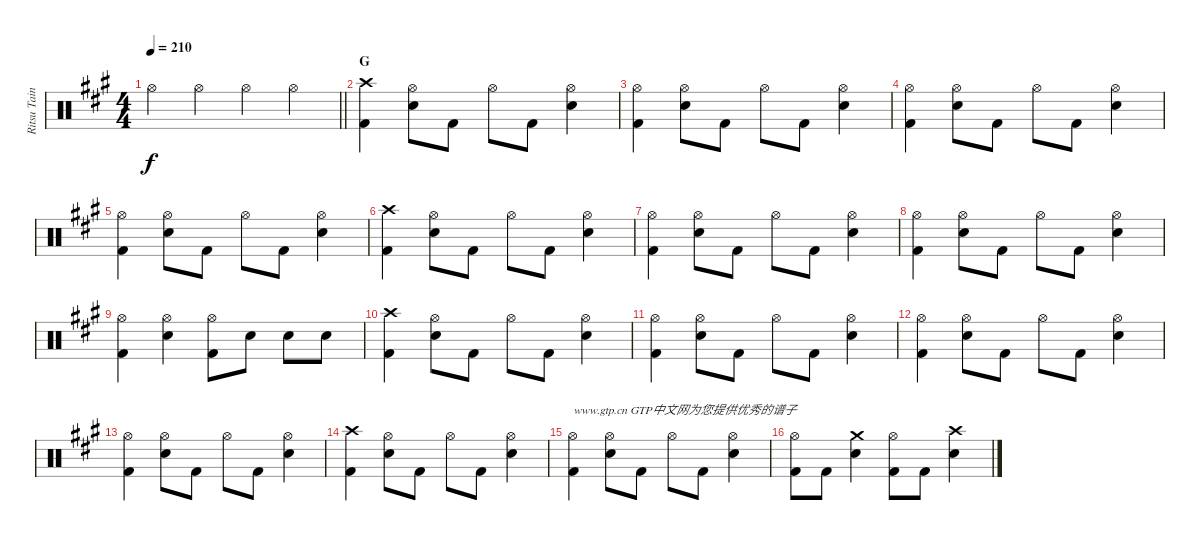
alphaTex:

\track ("Ritsu Tainaka" "Ritsu Tain") {instrument percussion}
\staff {score}
\articulation defaults
\ts (4 4)
\tempo 210
\clef neutral
\barLineRight lightlight
\ks a "Hi-Hat (open)".4{dy f} "Hi-Hat (open)".4 "Hi-Hat (open)".4 "Hi-Hat (open)".4
|
\section ("" "G")
("Crash high (hit)" "Kick (hit) 2").4 ("Hi-Hat (open)" "Electric Snare (hit)").8 "Kick (hit) 2".8 "Hi-Hat (open)".8 "Kick (hit) 2".8 ("Hi-Hat (open)" "Electric Snare (hit)").4 |
("Hi-Hat (open)" "Kick (hit) 2").4 ("Hi-Hat (open)" "Electric Snare (hit)").8 "Kick (hit) 2".8 "Hi-Hat (open)".8 "Kick (hit) 2".8 ("Hi-Hat (open)" "Electric Snare (hit)").4 |
("Hi-Hat (open)" "Kick (hit) 2").4 ("Hi-Hat (open)" "Electric Snare (hit)").8 "Kick (hit) 2".8 "Hi-Hat (open)".8 "Kick (hit) 2".8 ("Hi-Hat (open)" "Electric Snare (hit)").4 |
("Hi-Hat (open)" "Kick (hit) 2").4 ("Hi-Hat (open)" "Electric Snare (hit)").8 "Kick (hit) 2".8 "Hi-Hat (open)".8 "Kick (hit) 2".8 ("Hi-Hat (open)" "Electric Snare (hit)").4 |
("Crash high (hit)" "Kick (hit) 2").4 ("Hi-Hat (open)" "Electric Snare (hit)").8 "Kick (hit) 2".8 "Hi-Hat (open)".8 "Kick (hit) 2".8 ("Hi-Hat (open)" "Electric Snare (hit)").4 |
("Hi-Hat (open)" "Kick (hit) 2").4 ("Hi-Hat (open)" "Electric Snare (hit)").8 "Kick (hit) 2".8 "Hi-Hat (open)".8 "Kick (hit) 2".8 ("Hi-Hat (open)" "Electric Snare (hit)").4 |
("Hi-Hat (open)" "Kick (hit) 2").4 ("Hi-Hat (open)" "Electric Snare (hit)").8 "Kick (hit) 2".8 "Hi-Hat (open)".8 "Kick (hit) 2".8 ("Hi-Hat (open)" "Electric Snare (hit)").4 |
("Hi-Hat (open)" "Kick (hit) 2").4 ("Hi-Hat (open)" "Electric Snare (hit)").4 ("Hi-Hat (open)" "Kick (hit) 2").8 "Electric Snare (hit)".8 "Electric Snare (hit)".8 "Electric Snare (hit)".8 |
("Crash high (hit)" "Kick (hit) 2").4 ("Hi-Hat (open)" "Electric Snare (hit)").8 "Kick (hit) 2".8 "Hi-Hat (open)".8 "Kick (hit) 2".8 ("Hi-Hat (open)" "Electric Snare (hit)").4 |
("Hi-Hat (open)" "Kick (hit) 2").4 ("Hi-Hat (open)" "Electric Snare (hit)").8 "Kick (hit) 2".8 "Hi-Hat (open)".8 "Kick (hit) 2".8 ("Hi-Hat (open)" "Electric Snare (hit)").4 |
("Hi-Hat (open)" "Kick (hit) 2").4 ("Hi-Hat (open)" "Electric Snare (hit)").8 "Kick (hit) 2".8 "Hi-Hat (open)".8 "Kick (hit) 2".8 ("Hi-Hat (open)" "Electric Snare (hit)").4 |
("Hi-Hat (open)" "Kick (hit) 2").4 ("Hi-Hat (open)" "Electric Snare (hit)").8 "Kick (hit) 2".8 "Hi-Hat (open)".8 "Kick (hit) 2".8 ("Hi-Hat (open)" "Electric Snare (hit)").4 |
("Crash high (hit)" "Kick (hit) 2").4 ("Hi-Hat (open)" "Electric Snare (hit)").8 "Kick (hit) 2".8 "Hi-Hat (open)".8 "Kick (hit) 2".8 ("Hi-Hat (open)" "Electric Snare (hit)").4 |
("Hi-Hat (open)" "Kick (hit) 2").4{txt "www.gtp.cn GTP中文网为您提供优秀的谱子"} ("Hi-Hat (open)" "Electric Snare (hit)").8 "Kick (hit) 2".8 "Hi-Hat (open)".8 "Kick (hit) 2".8 ("Hi-Hat (open)" "Electric Snare (hit)").4 |
("Hi-Hat (open)" "Kick (hit) 2").8 "Kick (hit) 2".8 ("Crash medium (hit)" "Electric Snare (hit)").4 ("Hi-Hat (open)" "Kick (hit) 2").8 "Kick (hit) 2".8 ("Crash high (hit)" "Electric Snare (hit)").4
